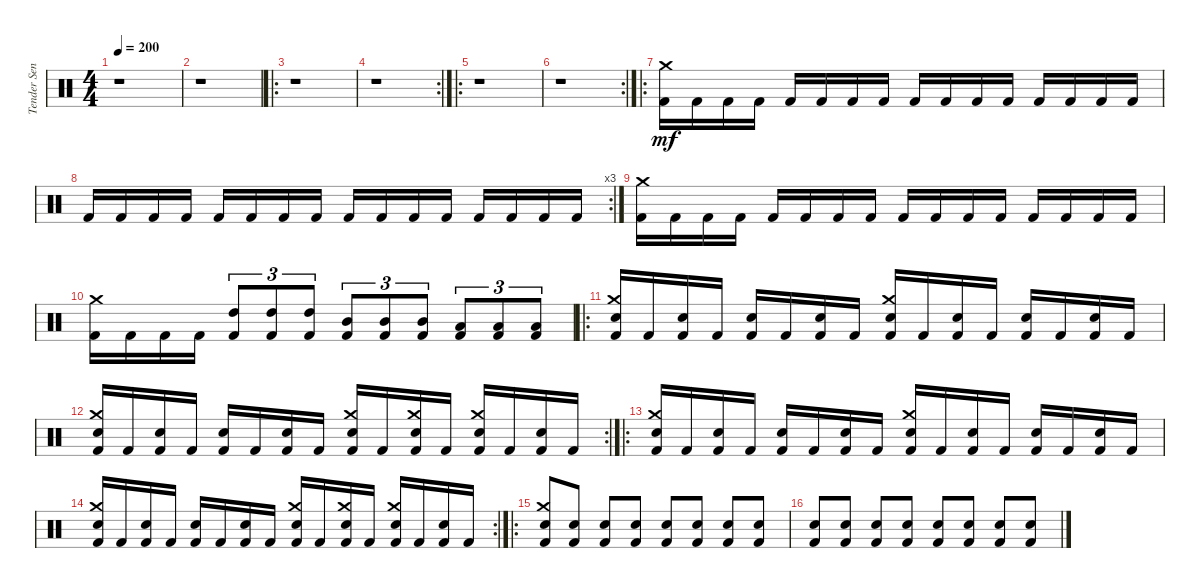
\track ("Tender Sender" "Tender Sen") {instrument percussion}
\staff {score}
\articulation defaults
\ts (4 4)
\tempo 200
\clef neutral
\ks c
r.1{dy mf} |
r.1 |
\ro
r.1 |
\rc 2
r.1 |
\ro
r.1 |
\rc 2
r.1 |
\ro
("Kick (hit) 2" "Crash medium (hit)").16 "Kick (hit) 2".16 "Kick (hit) 2".16 "Kick (hit) 2".16 "Kick (hit) 2".16 "Kick (hit) 2".16 "Kick (hit) 2".16 "Kick (hit) 2".16 "Kick (hit) 2".16 "Kick (hit) 2".16 "Kick (hit) 2".16 "Kick (hit) 2".16 "Kick (hit) 2".16 "Kick (hit) 2".16 "Kick (hit) 2".16 "Kick (hit) 2".16 |
\rc 3 "Kick (hit) 2".16 "Kick (hit) 2".16 "Kick (hit) 2".16 "Kick (hit) 2".16 "Kick (hit) 2".16 "Kick (hit) 2".16 "Kick (hit) 2".16 "Kick (hit) 2".16 "Kick (hit) 2".16 "Kick (hit) 2".16 "Kick (hit) 2".16 "Kick (hit) 2".16 "Kick (hit) 2".16 "Kick (hit) 2".16 "Kick (hit) 2".16 "Kick (hit) 2".16
|
("Kick (hit) 2" "Crash medium (hit)").16 "Kick (hit) 2".16 "Kick (hit) 2".16 "Kick (hit) 2".16 "Kick (hit) 2".16 "Kick (hit) 2".16 "Kick (hit) 2".16 "Kick (hit) 2".16 "Kick (hit) 2".16 "Kick (hit) 2".16 "Kick (hit) 2".16 "Kick (hit) 2".16 "Kick (hit) 2".16 "Kick (hit) 2".16 "Kick (hit) 2".16 "Kick (hit) 2".16 |
("Kick (hit) 2" "Crash medium (hit)").16 "Kick (hit) 2".16 "Kick (hit) 2".16 "Kick (hit) 2".16 ("Kick (hit) 2" "High Tom (hit)").8{tu (3 2)} ("Kick (hit) 2" "High Tom (hit)").8{tu (3 2)} ("Kick (hit) 2" "High Tom (hit)").8{tu (3 2)} ("Kick (hit) 2" "Mid Tom (hit)").8{tu (3 2)} ("Kick (hit) 2" "Mid Tom (hit)").8{tu (3 2)} ("Kick (hit) 2" "Mid Tom (hit)").8{tu (3 2)} ("Kick (hit) 2" "Low Tom (hit)").8{tu (3 2)} ("Kick (hit) 2" "Low Tom (hit)").8{tu (3 2)} ("Kick (hit) 2" "Low Tom (hit)").8{tu (3 2)} |
\ro
("Kick (hit) 2" "Snare (hit) 2" "Crash medium (hit)").16 "Kick (hit) 2".16 ("Kick (hit) 2" "Snare (hit) 2").16 "Kick (hit) 2".16 ("Kick (hit) 2" "Snare (hit) 2").16 "Kick (hit) 2".16 ("Kick (hit) 2" "Snare (hit) 2").16 "Kick (hit) 2".16 ("Kick (hit) 2" "Snare (hit) 2" "Crash medium (hit)").16 "Kick (hit) 2".16 ("Kick (hit) 2" "Snare (hit) 2").16 "Kick (hit) 2".16 ("Kick (hit) 2" "Snare (hit) 2").16 "Kick (hit) 2".16 ("Kick (hit) 2" "Snare (hit) 2").16 "Kick (hit) 2".16 |
\rc 2
("Kick (hit) 2" "Snare (hit) 2" "Crash medium (hit)").16 "Kick (hit) 2".16 ("Kick (hit) 2" "Snare (hit) 2").16 "Kick (hit) 2".16 ("Kick (hit) 2" "Snare (hit) 2").16 "Kick (hit) 2".16 ("Kick (hit) 2" "Snare (hit) 2").16 "Kick (hit) 2".16 ("Kick (hit) 2" "Snare (hit) 2" "Crash medium (hit)").16 "Kick (hit) 2".16 ("Kick (hit) 2" "Snare (hit) 2" "Crash medium (hit)").16 "Kick (hit) 2".16 ("Kick (hit) 2" "Snare (hit) 2" "Crash medium (hit)").16 "Kick (hit) 2".16 ("Kick (hit) 2" "Snare (hit) 2").16 "Kick (hit) 2".16 |
\ro
("Kick (hit) 2" "Snare (hit) 2" "Crash medium (hit)").16 "Kick (hit) 2".16 ("Kick (hit) 2" "Snare (hit) 2").16 "Kick (hit) 2".16 ("Kick (hit) 2" "Snare (hit) 2").16 "Kick (hit) 2".16 ("Kick (hit) 2" "Snare (hit) 2").16 "Kick (hit) 2".16 ("Kick (hit) 2" "Snare (hit) 2" "Crash medium (hit)").16 "Kick (hit) 2".16 ("Kick (hit) 2" "Snare (hit) 2").16 "Kick (hit) 2".16 ("Kick (hit) 2" "Snare (hit) 2").16 "Kick (hit) 2".16 ("Kick (hit) 2" "Snare (hit) 2").16 "Kick (hit) 2".16 |
\rc 2
("Kick (hit) 2" "Snare (hit) 2" "Crash medium (hit)").16 "Kick (hit) 2".16 ("Kick (hit) 2" "Snare (hit) 2").16 "Kick (hit) 2".16 ("Kick (hit) 2" "Snare (hit) 2").16 "Kick (hit) 2".16 ("Kick (hit) 2" "Snare (hit) 2").16 "Kick (hit) 2".16 ("Kick (hit) 2" "Snare (hit) 2" "Crash medium (hit)").16 "Kick (hit) 2".16 ("Kick (hit) 2" "Snare (hit) 2" "Crash medium (hit)").16 "Kick (hit) 2".16 ("Kick (hit) 2" "Snare (hit) 2" "Crash medium (hit)").16 "Kick (hit) 2".16 ("Kick (hit) 2" "Snare (hit) 2").16 "Kick (hit) 2".16 |
\ro
("Kick (hit) 2" "Snare (hit) 2" "Crash medium (hit)").8 ("Kick (hit) 2" "Snare (hit) 2").8 ("Kick (hit) 2" "Snare (hit) 2").8 ("Kick (hit) 2" "Snare (hit) 2").8 ("Kick (hit) 2" "Snare (hit) 2").8 ("Kick (hit) 2" "Snare (hit) 2").8 ("Kick (hit) 2" "Snare (hit) 2").8 ("Kick (hit) 2" "Snare (hit) 2").8 |
("Kick (hit) 2" "Snare (hit) 2").8 ("Kick (hit) 2" "Snare (hit) 2").8 ("Kick (hit) 2" "Snare (hit) 2").8 ("Kick (hit) 2" "Snare (hit) 2").8 ("Kick (hit) 2" "Snare (hit) 2").8 ("Kick (hit) 2" "Snare (hit) 2").8 ("Kick (hit) 2" "Snare (hit) 2").8 ("Kick (hit) 2" "Snare (hit) 2").8
